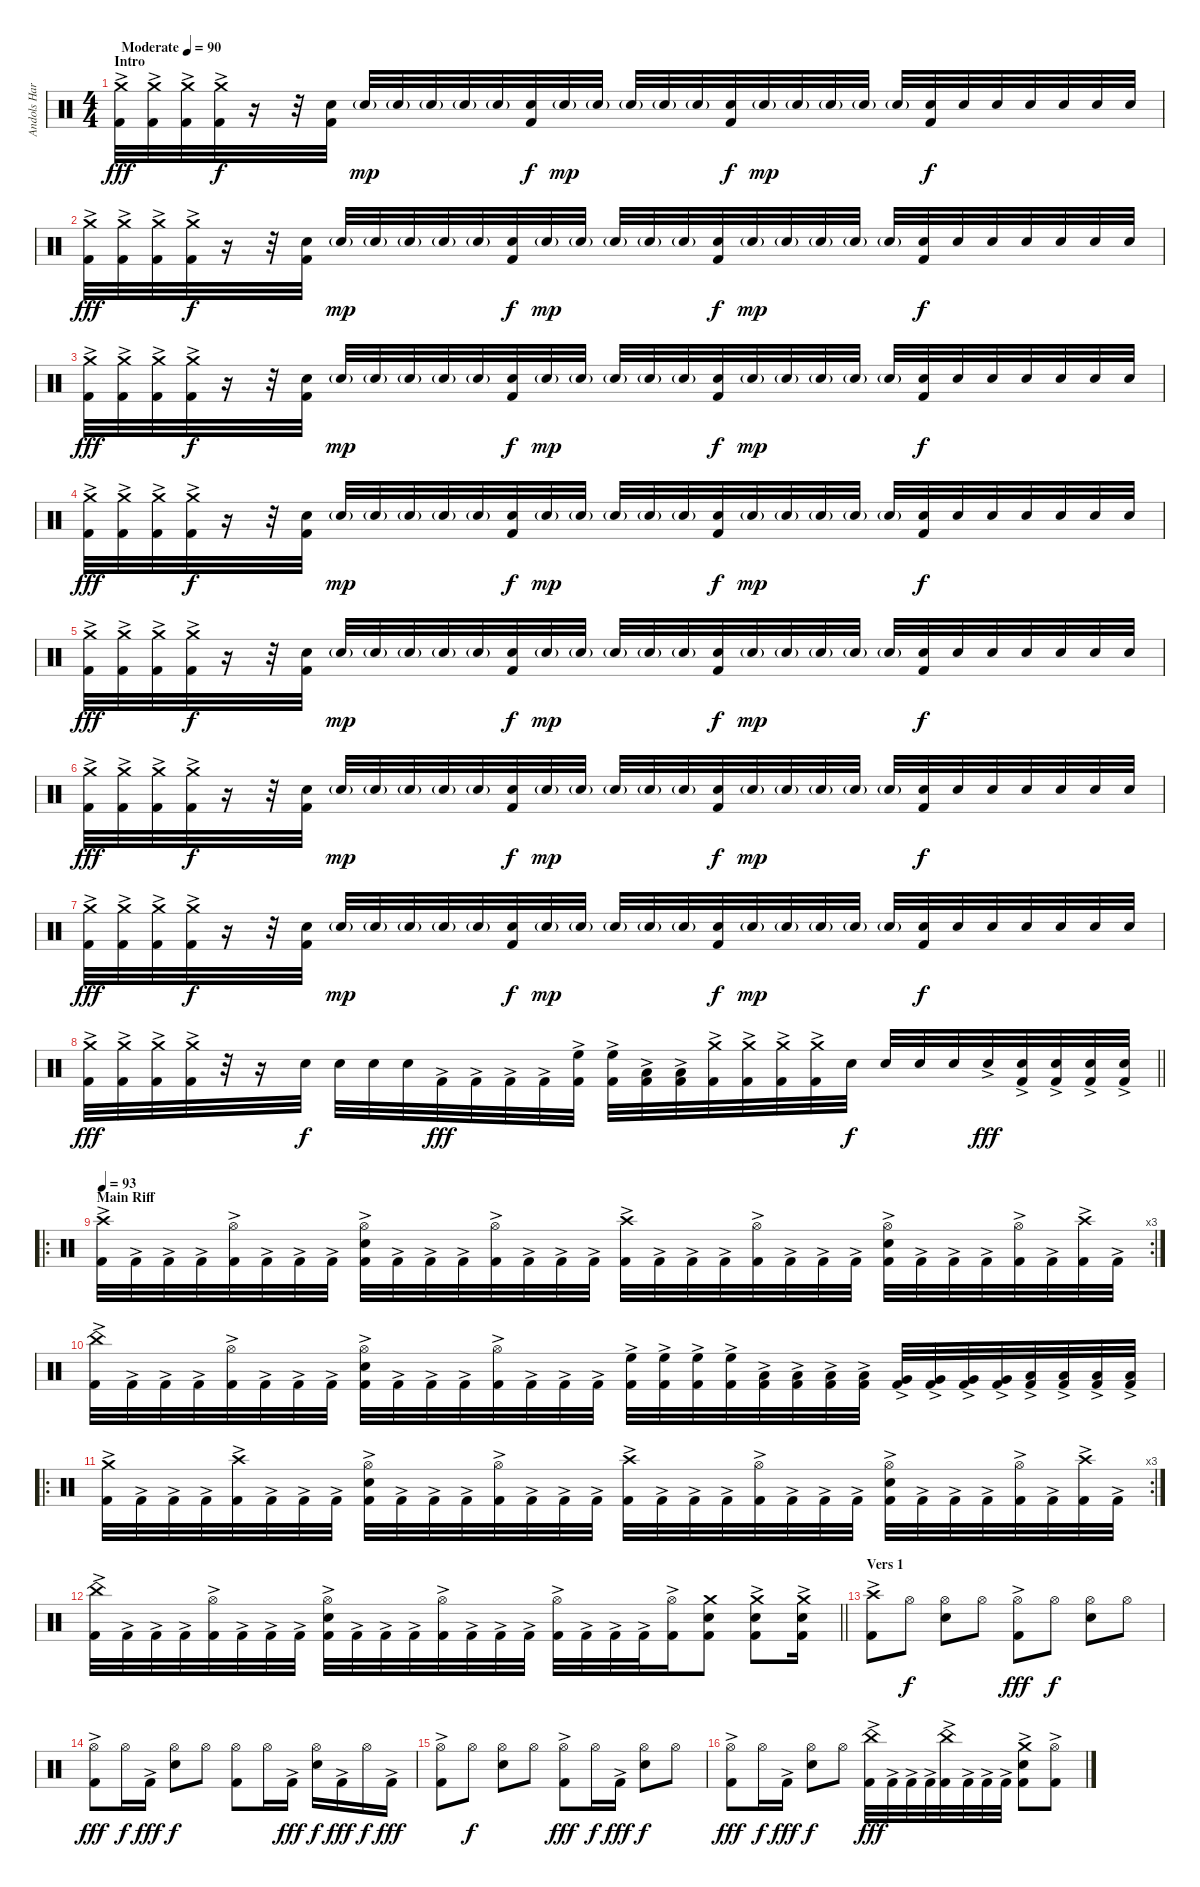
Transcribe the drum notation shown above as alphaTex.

\track ("Andols Harrick" "Andols Har") {instrument percussion}
\staff {score}
\articulation defaults
\ts (4 4)
\section ("" "Intro")
\tempo (90 "Moderate")
\clef neutral
\ks c
("Crash medium (hit)" "Kick (hit) 2"{ac}).32{dy fff} ("Crash medium (hit)"{ac} "Kick (hit) 2").32 ("Crash medium (hit)"{ac} "Kick (hit) 2").32 ("Crash medium (hit)"{ac} "Kick (hit) 2").32{dy f} r.16 r.32 ("Electric Snare (hit)" "Kick (hit) 2").32 "Electric Snare (hit)"{g}.32{dy mp} "Electric Snare (hit)"{g}.32 "Electric Snare (hit)"{g}.32 "Electric Snare (hit)"{g}.32 "Electric Snare (hit)"{g}.32 ("Electric Snare (hit)" "Kick (hit) 2").32{dy f} "Electric Snare (hit)"{g}.32{dy mp} "Electric Snare (hit)"{g}.32 "Electric Snare (hit)"{g}.32 "Electric Snare (hit)"{g}.32 "Electric Snare (hit)"{g}.32 ("Electric Snare (hit)" "Kick (hit) 2").32{dy f} "Electric Snare (hit)"{g}.32{dy mp} "Electric Snare (hit)"{g}.32 "Electric Snare (hit)"{g}.32 "Electric Snare (hit)"{g}.32 "Electric Snare (hit)"{g}.32 ("Electric Snare (hit)" "Kick (hit) 2").32{dy f} "Electric Snare (hit)".32 "Electric Snare (hit)".32 "Electric Snare (hit)".32 "Electric Snare (hit)".32 "Electric Snare (hit)".32 "Electric Snare (hit)".32 |
("Crash medium (hit)" "Kick (hit) 2"{ac}).32{dy fff} ("Crash medium (hit)"{ac} "Kick (hit) 2").32 ("Crash medium (hit)"{ac} "Kick (hit) 2").32 ("Crash medium (hit)"{ac} "Kick (hit) 2").32{dy f} r.16 r.32 ("Electric Snare (hit)" "Kick (hit) 2").32 "Electric Snare (hit)"{g}.32{dy mp} "Electric Snare (hit)"{g}.32 "Electric Snare (hit)"{g}.32 "Electric Snare (hit)"{g}.32 "Electric Snare (hit)"{g}.32 ("Electric Snare (hit)" "Kick (hit) 2").32{dy f} "Electric Snare (hit)"{g}.32{dy mp} "Electric Snare (hit)"{g}.32 "Electric Snare (hit)"{g}.32 "Electric Snare (hit)"{g}.32 "Electric Snare (hit)"{g}.32 ("Electric Snare (hit)" "Kick (hit) 2").32{dy f} "Electric Snare (hit)"{g}.32{dy mp} "Electric Snare (hit)"{g}.32 "Electric Snare (hit)"{g}.32 "Electric Snare (hit)"{g}.32 "Electric Snare (hit)"{g}.32 ("Electric Snare (hit)" "Kick (hit) 2").32{dy f} "Electric Snare (hit)".32 "Electric Snare (hit)".32 "Electric Snare (hit)".32 "Electric Snare (hit)".32 "Electric Snare (hit)".32 "Electric Snare (hit)".32 |
("Crash medium (hit)" "Kick (hit) 2"{ac}).32{dy fff} ("Crash medium (hit)"{ac} "Kick (hit) 2").32 ("Crash medium (hit)"{ac} "Kick (hit) 2").32 ("Crash medium (hit)"{ac} "Kick (hit) 2").32{dy f} r.16 r.32 ("Electric Snare (hit)" "Kick (hit) 2").32 "Electric Snare (hit)"{g}.32{dy mp} "Electric Snare (hit)"{g}.32 "Electric Snare (hit)"{g}.32 "Electric Snare (hit)"{g}.32 "Electric Snare (hit)"{g}.32 ("Electric Snare (hit)" "Kick (hit) 2").32{dy f} "Electric Snare (hit)"{g}.32{dy mp} "Electric Snare (hit)"{g}.32 "Electric Snare (hit)"{g}.32 "Electric Snare (hit)"{g}.32 "Electric Snare (hit)"{g}.32 ("Electric Snare (hit)" "Kick (hit) 2").32{dy f} "Electric Snare (hit)"{g}.32{dy mp} "Electric Snare (hit)"{g}.32 "Electric Snare (hit)"{g}.32 "Electric Snare (hit)"{g}.32 "Electric Snare (hit)"{g}.32 ("Electric Snare (hit)" "Kick (hit) 2").32{dy f} "Electric Snare (hit)".32 "Electric Snare (hit)".32 "Electric Snare (hit)".32 "Electric Snare (hit)".32 "Electric Snare (hit)".32 "Electric Snare (hit)".32 |
("Crash medium (hit)" "Kick (hit) 2"{ac}).32{dy fff} ("Crash medium (hit)"{ac} "Kick (hit) 2").32 ("Crash medium (hit)"{ac} "Kick (hit) 2").32 ("Crash medium (hit)"{ac} "Kick (hit) 2").32{dy f} r.16 r.32 ("Electric Snare (hit)" "Kick (hit) 2").32 "Electric Snare (hit)"{g}.32{dy mp} "Electric Snare (hit)"{g}.32 "Electric Snare (hit)"{g}.32 "Electric Snare (hit)"{g}.32 "Electric Snare (hit)"{g}.32 ("Electric Snare (hit)" "Kick (hit) 2").32{dy f} "Electric Snare (hit)"{g}.32{dy mp} "Electric Snare (hit)"{g}.32 "Electric Snare (hit)"{g}.32 "Electric Snare (hit)"{g}.32 "Electric Snare (hit)"{g}.32 ("Electric Snare (hit)" "Kick (hit) 2").32{dy f} "Electric Snare (hit)"{g}.32{dy mp} "Electric Snare (hit)"{g}.32 "Electric Snare (hit)"{g}.32 "Electric Snare (hit)"{g}.32 "Electric Snare (hit)"{g}.32 ("Electric Snare (hit)" "Kick (hit) 2").32{dy f} "Electric Snare (hit)".32 "Electric Snare (hit)".32 "Electric Snare (hit)".32 "Electric Snare (hit)".32 "Electric Snare (hit)".32 "Electric Snare (hit)".32 |
("Crash medium (hit)" "Kick (hit) 2"{ac}).32{dy fff} ("Crash medium (hit)"{ac} "Kick (hit) 2").32 ("Crash medium (hit)"{ac} "Kick (hit) 2").32 ("Crash medium (hit)"{ac} "Kick (hit) 2").32{dy f} r.16 r.32 ("Electric Snare (hit)" "Kick (hit) 2").32 "Electric Snare (hit)"{g}.32{dy mp} "Electric Snare (hit)"{g}.32 "Electric Snare (hit)"{g}.32 "Electric Snare (hit)"{g}.32 "Electric Snare (hit)"{g}.32 ("Electric Snare (hit)" "Kick (hit) 2").32{dy f} "Electric Snare (hit)"{g}.32{dy mp} "Electric Snare (hit)"{g}.32 "Electric Snare (hit)"{g}.32 "Electric Snare (hit)"{g}.32 "Electric Snare (hit)"{g}.32 ("Electric Snare (hit)" "Kick (hit) 2").32{dy f} "Electric Snare (hit)"{g}.32{dy mp} "Electric Snare (hit)"{g}.32 "Electric Snare (hit)"{g}.32 "Electric Snare (hit)"{g}.32 "Electric Snare (hit)"{g}.32 ("Electric Snare (hit)" "Kick (hit) 2").32{dy f} "Electric Snare (hit)".32 "Electric Snare (hit)".32 "Electric Snare (hit)".32 "Electric Snare (hit)".32 "Electric Snare (hit)".32 "Electric Snare (hit)".32 |
("Crash medium (hit)" "Kick (hit) 2"{ac}).32{dy fff} ("Crash medium (hit)"{ac} "Kick (hit) 2").32 ("Crash medium (hit)"{ac} "Kick (hit) 2").32 ("Crash medium (hit)"{ac} "Kick (hit) 2").32{dy f} r.16 r.32 ("Electric Snare (hit)" "Kick (hit) 2").32 "Electric Snare (hit)"{g}.32{dy mp} "Electric Snare (hit)"{g}.32 "Electric Snare (hit)"{g}.32 "Electric Snare (hit)"{g}.32 "Electric Snare (hit)"{g}.32 ("Electric Snare (hit)" "Kick (hit) 2").32{dy f} "Electric Snare (hit)"{g}.32{dy mp} "Electric Snare (hit)"{g}.32 "Electric Snare (hit)"{g}.32 "Electric Snare (hit)"{g}.32 "Electric Snare (hit)"{g}.32 ("Electric Snare (hit)" "Kick (hit) 2").32{dy f} "Electric Snare (hit)"{g}.32{dy mp} "Electric Snare (hit)"{g}.32 "Electric Snare (hit)"{g}.32 "Electric Snare (hit)"{g}.32 "Electric Snare (hit)"{g}.32 ("Electric Snare (hit)" "Kick (hit) 2").32{dy f} "Electric Snare (hit)".32 "Electric Snare (hit)".32 "Electric Snare (hit)".32 "Electric Snare (hit)".32 "Electric Snare (hit)".32 "Electric Snare (hit)".32 |
("Crash medium (hit)" "Kick (hit) 2"{ac}).32{dy fff} ("Crash medium (hit)"{ac} "Kick (hit) 2").32 ("Crash medium (hit)"{ac} "Kick (hit) 2").32 ("Crash medium (hit)"{ac} "Kick (hit) 2").32{dy f} r.16 r.32 ("Electric Snare (hit)" "Kick (hit) 2").32 "Electric Snare (hit)"{g}.32{dy mp} "Electric Snare (hit)"{g}.32 "Electric Snare (hit)"{g}.32 "Electric Snare (hit)"{g}.32 "Electric Snare (hit)"{g}.32 ("Electric Snare (hit)" "Kick (hit) 2").32{dy f} "Electric Snare (hit)"{g}.32{dy mp} "Electric Snare (hit)"{g}.32 "Electric Snare (hit)"{g}.32 "Electric Snare (hit)"{g}.32 "Electric Snare (hit)"{g}.32 ("Electric Snare (hit)" "Kick (hit) 2").32{dy f} "Electric Snare (hit)"{g}.32{dy mp} "Electric Snare (hit)"{g}.32 "Electric Snare (hit)"{g}.32 "Electric Snare (hit)"{g}.32 "Electric Snare (hit)"{g}.32 ("Electric Snare (hit)" "Kick (hit) 2").32{dy f} "Electric Snare (hit)".32 "Electric Snare (hit)".32 "Electric Snare (hit)".32 "Electric Snare (hit)".32 "Electric Snare (hit)".32 "Electric Snare (hit)".32 |
\barLineRight lightlight
("Crash medium (hit)" "Kick (hit) 2"{ac}).32{dy fff} ("Crash medium (hit)" "Kick (hit) 2"{ac}).32 ("Crash medium (hit)" "Kick (hit) 2"{ac}).32 ("Crash medium (hit)" "Kick (hit) 2"{ac}).32 r.32 r.16 "Electric Snare (hit)".32{dy f} "Electric Snare (hit)".32 "Electric Snare (hit)".32 "Electric Snare (hit)".32 "Kick (hit) 2"{ac}.32{dy fff} "Kick (hit) 2"{ac}.32 "Kick (hit) 2"{ac}.32 "Kick (hit) 2"{ac}.32 ("High Floor Tom (hit)" "Kick (hit) 2"{ac}).32 ("High Floor Tom (hit)" "Kick (hit) 2"{ac}).32 ("Low Tom (hit)" "Kick (hit) 2"{ac}).32 ("Low Tom (hit)" "Kick (hit) 2"{ac}).32 ("Crash medium (hit)" "Kick (hit) 2"{ac}).32 ("Crash medium (hit)" "Kick (hit) 2"{ac}).32 ("Crash medium (hit)" "Kick (hit) 2"{ac}).32 ("Crash medium (hit)" "Kick (hit) 2"{ac}).32 "Electric Snare (hit)".32{dy f} "Electric Snare (hit)".32 "Electric Snare (hit)".32 "Electric Snare (hit)".32 "Electric Snare (hit)"{ac}.32{dy fff} ("Electric Snare (hit)"{ac} "Kick (hit) 2"{ac}).32 ("Electric Snare (hit)"{ac} "Kick (hit) 2"{ac}).32 ("Electric Snare (hit)"{ac} "Kick (hit) 2"{ac}).32 ("Electric Snare (hit)"{ac} "Kick (hit) 2"{ac}).32 |
\ro
\rc 3
\section ("" "Main Riff")
\tempo 93
("Crash high (hit)" "Kick (hit) 2"{ac}).32 "Kick (hit) 2"{ac}.32 "Kick (hit) 2"{ac}.32 "Kick (hit) 2"{ac}.32 ("Hi-Hat (open)" "Kick (hit) 2"{ac}).32 "Kick (hit) 2"{ac}.32 "Kick (hit) 2"{ac}.32 "Kick (hit) 2"{ac}.32 ("Hi-Hat (open)" "Electric Snare (hit)" "Kick (hit) 2"{ac}).32 "Kick (hit) 2"{ac}.32 "Kick (hit) 2"{ac}.32 "Kick (hit) 2"{ac}.32 ("Hi-Hat (open)" "Kick (hit) 2"{ac}).32 "Kick (hit) 2"{ac}.32 "Kick (hit) 2"{ac}.32 "Kick (hit) 2"{ac}.32 ("Crash high (hit)" "Kick (hit) 2"{ac}).32 "Kick (hit) 2"{ac}.32 "Kick (hit) 2"{ac}.32 "Kick (hit) 2"{ac}.32 ("Hi-Hat (open)" "Kick (hit) 2"{ac}).32 "Kick (hit) 2"{ac}.32 "Kick (hit) 2"{ac}.32 "Kick (hit) 2"{ac}.32 ("Hi-Hat (open)" "Electric Snare (hit)" "Kick (hit) 2"{ac}).32 "Kick (hit) 2"{ac}.32 "Kick (hit) 2"{ac}.32 "Kick (hit) 2"{ac}.32 ("Hi-Hat (open)" "Kick (hit) 2"{ac}).32 "Kick (hit) 2"{ac}.32 ("Crash high (hit)" "Kick (hit) 2"{ac}).32 "Kick (hit) 2"{ac}.32 |
("China (hit)" "Kick (hit) 2"{ac}).32 "Kick (hit) 2"{ac}.32 "Kick (hit) 2"{ac}.32 "Kick (hit) 2"{ac}.32 ("Hi-Hat (open)" "Kick (hit) 2"{ac}).32 "Kick (hit) 2"{ac}.32 "Kick (hit) 2"{ac}.32 "Kick (hit) 2"{ac}.32 ("Hi-Hat (open)" "Electric Snare (hit)" "Kick (hit) 2"{ac}).32 "Kick (hit) 2"{ac}.32 "Kick (hit) 2"{ac}.32 "Kick (hit) 2"{ac}.32 ("Hi-Hat (open)" "Kick (hit) 2"{ac}).32 "Kick (hit) 2"{ac}.32 "Kick (hit) 2"{ac}.32 "Kick (hit) 2"{ac}.32 ("High Floor Tom (hit)" "Kick (hit) 2"{ac}).32 ("High Floor Tom (hit)" "Kick (hit) 2"{ac}).32 ("High Floor Tom (hit)" "Kick (hit) 2"{ac}).32 ("High Floor Tom (hit)" "Kick (hit) 2"{ac}).32 ("Low Tom (hit)" "Kick (hit) 2"{ac}).32 ("Low Tom (hit)" "Kick (hit) 2"{ac}).32 ("Low Tom (hit)" "Kick (hit) 2"{ac}).32 ("Low Tom (hit)" "Kick (hit) 2"{ac}).32 ("Very Low Tom (hit)" "Kick (hit) 2"{ac}).32 ("Very Low Tom (hit)" "Kick (hit) 2"{ac}).32 ("Very Low Tom (hit)" "Kick (hit) 2"{ac}).32 ("Very Low Tom (hit)" "Kick (hit) 2"{ac}).32 ("Low Floor Tom (hit)" "Kick (hit) 2"{ac}).32 ("Low Floor Tom (hit)" "Kick (hit) 2"{ac}).32 ("Low Floor Tom (hit)" "Kick (hit) 2"{ac}).32 ("Low Floor Tom (hit)" "Kick (hit) 2"{ac}).32 |
\ro
\rc 3
("Crash medium (hit)" "Kick (hit) 2"{ac}).32 "Kick (hit) 2"{ac}.32 "Kick (hit) 2"{ac}.32 "Kick (hit) 2"{ac}.32 ("Crash high (hit)" "Kick (hit) 2"{ac}).32 "Kick (hit) 2"{ac}.32 "Kick (hit) 2"{ac}.32 "Kick (hit) 2"{ac}.32 ("Hi-Hat (open)" "Electric Snare (hit)" "Kick (hit) 2"{ac}).32 "Kick (hit) 2"{ac}.32 "Kick (hit) 2"{ac}.32 "Kick (hit) 2"{ac}.32 ("Hi-Hat (open)" "Kick (hit) 2"{ac}).32 "Kick (hit) 2"{ac}.32 "Kick (hit) 2"{ac}.32 "Kick (hit) 2"{ac}.32 ("Crash high (hit)" "Kick (hit) 2"{ac}).32 "Kick (hit) 2"{ac}.32 "Kick (hit) 2"{ac}.32 "Kick (hit) 2"{ac}.32 ("Hi-Hat (open)" "Kick (hit) 2"{ac}).32 "Kick (hit) 2"{ac}.32 "Kick (hit) 2"{ac}.32 "Kick (hit) 2"{ac}.32 ("Hi-Hat (open)" "Electric Snare (hit)" "Kick (hit) 2"{ac}).32 "Kick (hit) 2"{ac}.32 "Kick (hit) 2"{ac}.32 "Kick (hit) 2"{ac}.32 ("Hi-Hat (open)" "Kick (hit) 2"{ac}).32 "Kick (hit) 2"{ac}.32 ("Crash high (hit)" "Kick (hit) 2"{ac}).32 "Kick (hit) 2"{ac}.32 |
\barLineRight lightlight
("China (hit)" "Kick (hit) 2"{ac}).32 "Kick (hit) 2"{ac}.32 "Kick (hit) 2"{ac}.32 "Kick (hit) 2"{ac}.32 ("Hi-Hat (open)" "Kick (hit) 2"{ac}).32 "Kick (hit) 2"{ac}.32 "Kick (hit) 2"{ac}.32 "Kick (hit) 2"{ac}.32 ("Hi-Hat (open)" "Electric Snare (hit)" "Kick (hit) 2"{ac}).32 "Kick (hit) 2"{ac}.32 "Kick (hit) 2"{ac}.32 "Kick (hit) 2"{ac}.32 ("Hi-Hat (open)" "Kick (hit) 2"{ac}).32 "Kick (hit) 2"{ac}.32 "Kick (hit) 2"{ac}.32 "Kick (hit) 2"{ac}.32 ("Hi-Hat (open)" "Kick (hit) 2"{ac}).32 "Kick (hit) 2"{ac}.32 "Kick (hit) 2"{ac}.32 "Kick (hit) 2"{ac}.32 ("Hi-Hat (open)" "Kick (hit) 2"{ac}).16 ("Crash medium (hit)" "Electric Snare (hit)" "Kick (hit) 2").8 ("Crash medium (hit)" "Electric Snare (hit)" "Kick (hit) 2"{ac}).8 ("Crash medium (hit)" "Electric Snare (hit)" "Kick (hit) 2"{ac}).16 |
\section ("" "Vers 1")
("Crash high (hit)" "Kick (hit) 2"{ac}).8 "Hi-Hat (open)".8{dy f} ("Hi-Hat (open)" "Electric Snare (hit)").8 "Hi-Hat (open)".8 ("Hi-Hat (open)" "Kick (hit) 2"{ac}).8{dy fff} "Hi-Hat (open)".8{dy f} ("Hi-Hat (open)" "Electric Snare (hit)").8 "Hi-Hat (open)".8 |
("Hi-Hat (open)" "Kick (hit) 2"{ac}).8{dy fff} "Hi-Hat (open)".16{dy f} "Kick (hit) 2"{ac}.16{dy fff} ("Hi-Hat (open)" "Electric Snare (hit)").8{dy f} "Hi-Hat (open)".8 ("Hi-Hat (open)" "Kick (hit) 2").8 "Hi-Hat (open)".16 "Kick (hit) 2"{ac}.16{dy fff} ("Hi-Hat (open)" "Electric Snare (hit)").16{dy f} "Kick (hit) 2"{ac}.16{dy fff} "Hi-Hat (open)".16{dy f} "Kick (hit) 2"{ac}.16{dy fff} |
("Hi-Hat (open)" "Kick (hit) 2"{ac}).8 "Hi-Hat (open)".8{dy f} ("Hi-Hat (open)" "Electric Snare (hit)").8 "Hi-Hat (open)".8 ("Hi-Hat (open)" "Kick (hit) 2"{ac}).8{dy fff} "Hi-Hat (open)".16{dy f} "Kick (hit) 2"{ac}.16{dy fff} ("Hi-Hat (open)" "Electric Snare (hit)").8{dy f} "Hi-Hat (open)".8 |
("Hi-Hat (open)" "Kick (hit) 2"{ac}).8{dy fff} "Hi-Hat (open)".16{dy f} "Kick (hit) 2"{ac}.16{dy fff} ("Hi-Hat (open)" "Electric Snare (hit)").8{dy f} "Hi-Hat (open)".8 ("China (hit)" "Kick (hit) 2"{ac}).32{dy fff} "Kick (hit) 2"{ac}.32 "Kick (hit) 2"{ac}.32 "Kick (hit) 2"{ac}.32 ("China (hit)" "Kick (hit) 2"{ac}).32 "Kick (hit) 2"{ac}.32 "Kick (hit) 2"{ac}.32 "Kick (hit) 2"{ac}.32 ("Crash medium (hit)" "Electric Snare (hit)" "Kick (hit) 2"{ac}).8 ("Hi-Hat (open)" "Kick (hit) 2"{ac}).8
